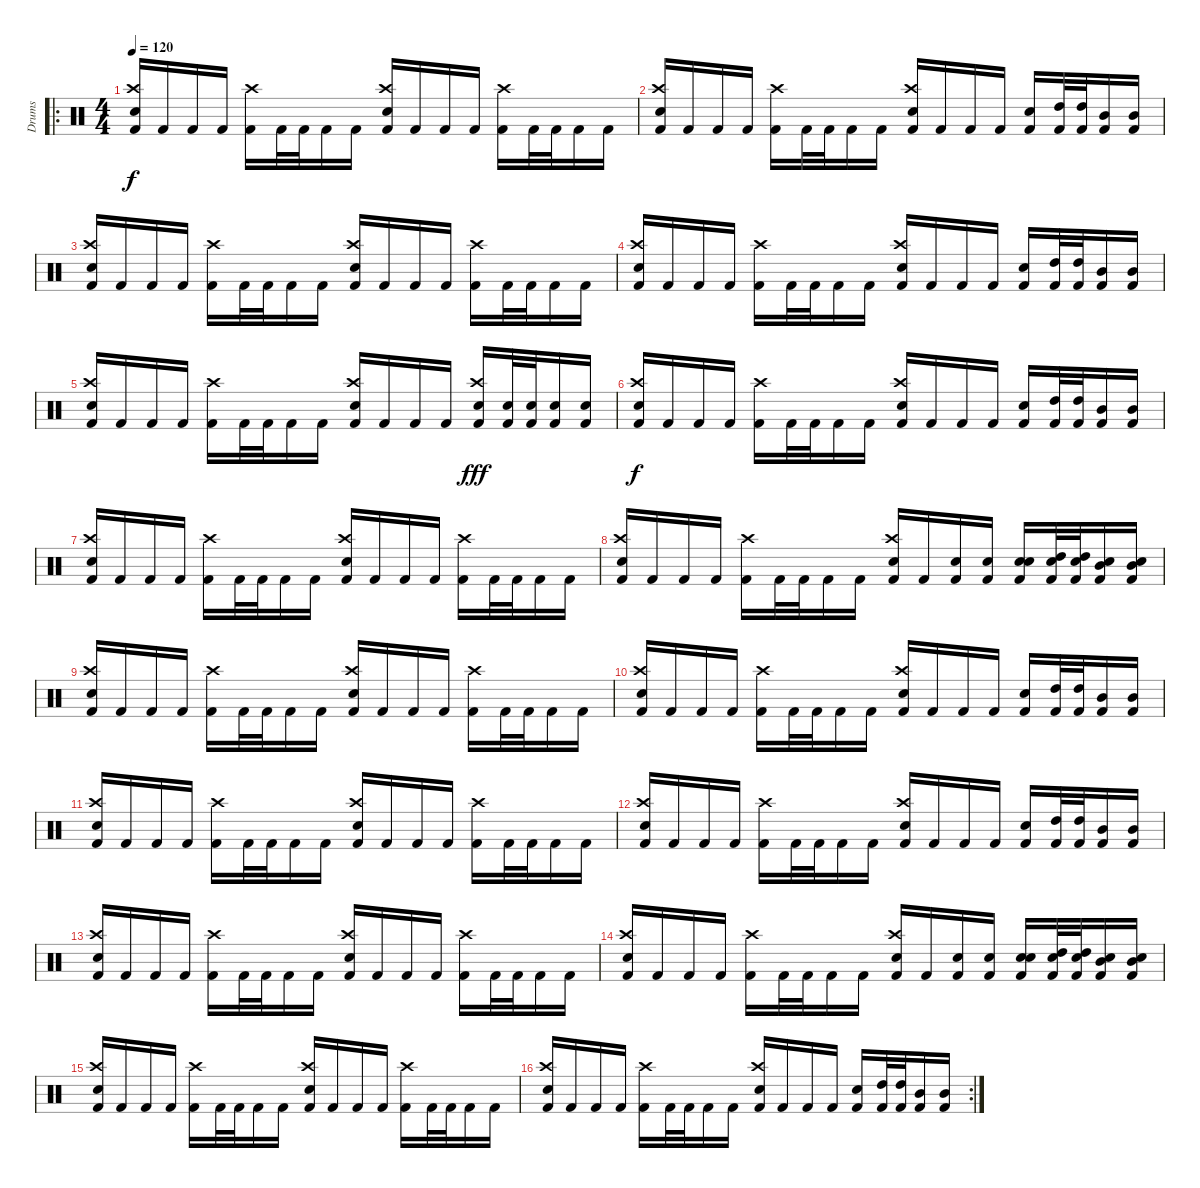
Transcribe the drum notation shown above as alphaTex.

\track ("Drums" "Drums") {instrument percussion}
\staff {score}
\articulation defaults
\ro
\ts (4 4)
\tempo 120
\clef neutral
\ks c
("Kick (hit) 2" "Crash high (hit)" "Electric Snare (hit)").16{dy f} "Kick (hit) 2".16 "Kick (hit) 2".16 "Kick (hit) 2".16 ("Kick (hit) 2" "Crash high (hit)").16 "Kick (hit) 2".32 "Kick (hit) 2".32 "Kick (hit) 2".16 "Kick (hit) 2".16 ("Kick (hit) 2" "Crash high (hit)" "Electric Snare (hit)").16 "Kick (hit) 2".16 "Kick (hit) 2".16 "Kick (hit) 2".16 ("Kick (hit) 2" "Crash high (hit)").16 "Kick (hit) 2".32 "Kick (hit) 2".32 "Kick (hit) 2".16 "Kick (hit) 2".16 |
("Kick (hit) 2" "Crash high (hit)" "Electric Snare (hit)").16 "Kick (hit) 2".16 "Kick (hit) 2".16 "Kick (hit) 2".16 ("Kick (hit) 2" "Crash high (hit)").16 "Kick (hit) 2".32 "Kick (hit) 2".32 "Kick (hit) 2".16 "Kick (hit) 2".16 ("Kick (hit) 2" "Crash high (hit)" "Electric Snare (hit)").16 "Kick (hit) 2".16 "Kick (hit) 2".16 "Kick (hit) 2".16 ("Kick (hit) 2" "Electric Snare (hit)").16 ("Kick (hit) 2" "High Tom (hit)").32 ("Kick (hit) 2" "High Tom (hit)").32 ("Kick (hit) 2" "Mid Tom (hit)").16 ("Kick (hit) 2" "Mid Tom (hit)").16 |
("Kick (hit) 2" "Crash high (hit)" "Electric Snare (hit)").16 "Kick (hit) 2".16 "Kick (hit) 2".16 "Kick (hit) 2".16 ("Kick (hit) 2" "Crash high (hit)").16 "Kick (hit) 2".32 "Kick (hit) 2".32 "Kick (hit) 2".16 "Kick (hit) 2".16 ("Kick (hit) 2" "Crash high (hit)" "Electric Snare (hit)").16 "Kick (hit) 2".16 "Kick (hit) 2".16 "Kick (hit) 2".16 ("Kick (hit) 2" "Crash high (hit)").16 "Kick (hit) 2".32 "Kick (hit) 2".32 "Kick (hit) 2".16 "Kick (hit) 2".16 |
("Kick (hit) 2" "Crash high (hit)" "Electric Snare (hit)").16 "Kick (hit) 2".16 "Kick (hit) 2".16 "Kick (hit) 2".16 ("Kick (hit) 2" "Crash high (hit)").16 "Kick (hit) 2".32 "Kick (hit) 2".32 "Kick (hit) 2".16 "Kick (hit) 2".16 ("Kick (hit) 2" "Crash high (hit)" "Electric Snare (hit)").16 "Kick (hit) 2".16 "Kick (hit) 2".16 "Kick (hit) 2".16 ("Kick (hit) 2" "Electric Snare (hit)").16 ("Kick (hit) 2" "High Tom (hit)").32 ("Kick (hit) 2" "High Tom (hit)").32 ("Kick (hit) 2" "Mid Tom (hit)").16 ("Kick (hit) 2" "Mid Tom (hit)").16 |
("Kick (hit) 2" "Crash high (hit)" "Electric Snare (hit)").16 "Kick (hit) 2".16 "Kick (hit) 2".16 "Kick (hit) 2".16 ("Kick (hit) 2" "Crash high (hit)").16 "Kick (hit) 2".32 "Kick (hit) 2".32 "Kick (hit) 2".16 "Kick (hit) 2".16 ("Kick (hit) 2" "Crash high (hit)" "Electric Snare (hit)").16 "Kick (hit) 2".16 "Kick (hit) 2".16 "Kick (hit) 2".16 ("Kick (hit) 2" "Crash high (hit)" "Electric Snare (hit)").16{dy fff} ("Kick (hit) 2" "Electric Snare (hit)").32 ("Kick (hit) 2" "Electric Snare (hit)").32 ("Kick (hit) 2" "Electric Snare (hit)").16 ("Kick (hit) 2" "Electric Snare (hit)").16 |
("Kick (hit) 2" "Crash high (hit)" "Electric Snare (hit)").16{dy f} "Kick (hit) 2".16 "Kick (hit) 2".16 "Kick (hit) 2".16 ("Kick (hit) 2" "Crash high (hit)").16 "Kick (hit) 2".32 "Kick (hit) 2".32 "Kick (hit) 2".16 "Kick (hit) 2".16 ("Kick (hit) 2" "Crash high (hit)" "Electric Snare (hit)").16 "Kick (hit) 2".16 "Kick (hit) 2".16 "Kick (hit) 2".16 ("Kick (hit) 2" "Electric Snare (hit)").16 ("Kick (hit) 2" "High Tom (hit)").32 ("Kick (hit) 2" "High Tom (hit)").32 ("Kick (hit) 2" "Mid Tom (hit)").16 ("Kick (hit) 2" "Mid Tom (hit)").16 |
("Kick (hit) 2" "Crash high (hit)" "Electric Snare (hit)").16 "Kick (hit) 2".16 "Kick (hit) 2".16 "Kick (hit) 2".16 ("Kick (hit) 2" "Crash high (hit)").16 "Kick (hit) 2".32 "Kick (hit) 2".32 "Kick (hit) 2".16 "Kick (hit) 2".16 ("Kick (hit) 2" "Crash high (hit)" "Electric Snare (hit)").16 "Kick (hit) 2".16 "Kick (hit) 2".16 "Kick (hit) 2".16 ("Kick (hit) 2" "Crash high (hit)").16 "Kick (hit) 2".32 "Kick (hit) 2".32 "Kick (hit) 2".16 "Kick (hit) 2".16 |
("Kick (hit) 2" "Crash high (hit)" "Electric Snare (hit)").16 "Kick (hit) 2".16 "Kick (hit) 2".16 "Kick (hit) 2".16 ("Kick (hit) 2" "Crash high (hit)").16 "Kick (hit) 2".32 "Kick (hit) 2".32 "Kick (hit) 2".16 "Kick (hit) 2".16 ("Kick (hit) 2" "Crash high (hit)" "Electric Snare (hit)").16 "Kick (hit) 2".16 ("Kick (hit) 2" "Electric Snare (hit)").16 ("Kick (hit) 2" "Electric Snare (hit)").16 ("Kick (hit) 2" "Electric Snare (hit)" "Electric Snare (hit)").16 ("Kick (hit) 2" "Electric Snare (hit)" "High Tom (hit)").32 ("Kick (hit) 2" "Electric Snare (hit)" "High Tom (hit)").32 ("Kick (hit) 2" "Electric Snare (hit)" "Mid Tom (hit)").16 ("Kick (hit) 2" "Electric Snare (hit)" "Mid Tom (hit)").16 |
("Kick (hit) 2" "Crash high (hit)" "Electric Snare (hit)").16 "Kick (hit) 2".16 "Kick (hit) 2".16 "Kick (hit) 2".16 ("Kick (hit) 2" "Crash high (hit)").16 "Kick (hit) 2".32 "Kick (hit) 2".32 "Kick (hit) 2".16 "Kick (hit) 2".16 ("Kick (hit) 2" "Crash high (hit)" "Electric Snare (hit)").16 "Kick (hit) 2".16 "Kick (hit) 2".16 "Kick (hit) 2".16 ("Kick (hit) 2" "Crash high (hit)").16 "Kick (hit) 2".32 "Kick (hit) 2".32 "Kick (hit) 2".16 "Kick (hit) 2".16 |
("Kick (hit) 2" "Crash high (hit)" "Electric Snare (hit)").16 "Kick (hit) 2".16 "Kick (hit) 2".16 "Kick (hit) 2".16 ("Kick (hit) 2" "Crash high (hit)").16 "Kick (hit) 2".32 "Kick (hit) 2".32 "Kick (hit) 2".16 "Kick (hit) 2".16 ("Kick (hit) 2" "Crash high (hit)" "Electric Snare (hit)").16 "Kick (hit) 2".16 "Kick (hit) 2".16 "Kick (hit) 2".16 ("Kick (hit) 2" "Electric Snare (hit)").16 ("Kick (hit) 2" "High Tom (hit)").32 ("Kick (hit) 2" "High Tom (hit)").32 ("Kick (hit) 2" "Mid Tom (hit)").16 ("Kick (hit) 2" "Mid Tom (hit)").16 |
("Kick (hit) 2" "Crash high (hit)" "Electric Snare (hit)").16 "Kick (hit) 2".16 "Kick (hit) 2".16 "Kick (hit) 2".16 ("Kick (hit) 2" "Crash high (hit)").16 "Kick (hit) 2".32 "Kick (hit) 2".32 "Kick (hit) 2".16 "Kick (hit) 2".16 ("Kick (hit) 2" "Crash high (hit)" "Electric Snare (hit)").16 "Kick (hit) 2".16 "Kick (hit) 2".16 "Kick (hit) 2".16 ("Kick (hit) 2" "Crash high (hit)").16 "Kick (hit) 2".32 "Kick (hit) 2".32 "Kick (hit) 2".16 "Kick (hit) 2".16 |
("Kick (hit) 2" "Crash high (hit)" "Electric Snare (hit)").16 "Kick (hit) 2".16 "Kick (hit) 2".16 "Kick (hit) 2".16 ("Kick (hit) 2" "Crash high (hit)").16 "Kick (hit) 2".32 "Kick (hit) 2".32 "Kick (hit) 2".16 "Kick (hit) 2".16 ("Kick (hit) 2" "Crash high (hit)" "Electric Snare (hit)").16 "Kick (hit) 2".16 "Kick (hit) 2".16 "Kick (hit) 2".16 ("Kick (hit) 2" "Electric Snare (hit)").16 ("Kick (hit) 2" "High Tom (hit)").32 ("Kick (hit) 2" "High Tom (hit)").32 ("Kick (hit) 2" "Mid Tom (hit)").16 ("Kick (hit) 2" "Mid Tom (hit)").16 |
("Kick (hit) 2" "Crash high (hit)" "Electric Snare (hit)").16 "Kick (hit) 2".16 "Kick (hit) 2".16 "Kick (hit) 2".16 ("Kick (hit) 2" "Crash high (hit)").16 "Kick (hit) 2".32 "Kick (hit) 2".32 "Kick (hit) 2".16 "Kick (hit) 2".16 ("Kick (hit) 2" "Crash high (hit)" "Electric Snare (hit)").16 "Kick (hit) 2".16 "Kick (hit) 2".16 "Kick (hit) 2".16 ("Kick (hit) 2" "Crash high (hit)").16 "Kick (hit) 2".32 "Kick (hit) 2".32 "Kick (hit) 2".16 "Kick (hit) 2".16 |
("Kick (hit) 2" "Crash high (hit)" "Electric Snare (hit)").16 "Kick (hit) 2".16 "Kick (hit) 2".16 "Kick (hit) 2".16 ("Kick (hit) 2" "Crash high (hit)").16 "Kick (hit) 2".32 "Kick (hit) 2".32 "Kick (hit) 2".16 "Kick (hit) 2".16 ("Kick (hit) 2" "Crash high (hit)" "Electric Snare (hit)").16 "Kick (hit) 2".16 ("Kick (hit) 2" "Electric Snare (hit)").16 ("Kick (hit) 2" "Electric Snare (hit)").16 ("Kick (hit) 2" "Electric Snare (hit)" "Electric Snare (hit)").16 ("Kick (hit) 2" "Electric Snare (hit)" "High Tom (hit)").32 ("Kick (hit) 2" "Electric Snare (hit)" "High Tom (hit)").32 ("Kick (hit) 2" "Electric Snare (hit)" "Mid Tom (hit)").16 ("Kick (hit) 2" "Electric Snare (hit)" "Mid Tom (hit)").16 |
("Kick (hit) 2" "Crash high (hit)" "Electric Snare (hit)").16 "Kick (hit) 2".16 "Kick (hit) 2".16 "Kick (hit) 2".16 ("Kick (hit) 2" "Crash high (hit)").16 "Kick (hit) 2".32 "Kick (hit) 2".32 "Kick (hit) 2".16 "Kick (hit) 2".16 ("Kick (hit) 2" "Crash high (hit)" "Electric Snare (hit)").16 "Kick (hit) 2".16 "Kick (hit) 2".16 "Kick (hit) 2".16 ("Kick (hit) 2" "Crash high (hit)").16 "Kick (hit) 2".32 "Kick (hit) 2".32 "Kick (hit) 2".16 "Kick (hit) 2".16 |
\rc 2
("Kick (hit) 2" "Crash high (hit)" "Electric Snare (hit)").16 "Kick (hit) 2".16 "Kick (hit) 2".16 "Kick (hit) 2".16 ("Kick (hit) 2" "Crash high (hit)").16 "Kick (hit) 2".32 "Kick (hit) 2".32 "Kick (hit) 2".16 "Kick (hit) 2".16 ("Kick (hit) 2" "Crash high (hit)" "Electric Snare (hit)").16 "Kick (hit) 2".16 "Kick (hit) 2".16 "Kick (hit) 2".16 ("Kick (hit) 2" "Electric Snare (hit)").16 ("Kick (hit) 2" "High Tom (hit)").32 ("Kick (hit) 2" "High Tom (hit)").32 ("Kick (hit) 2" "Mid Tom (hit)").16 ("Kick (hit) 2" "Mid Tom (hit)").16
